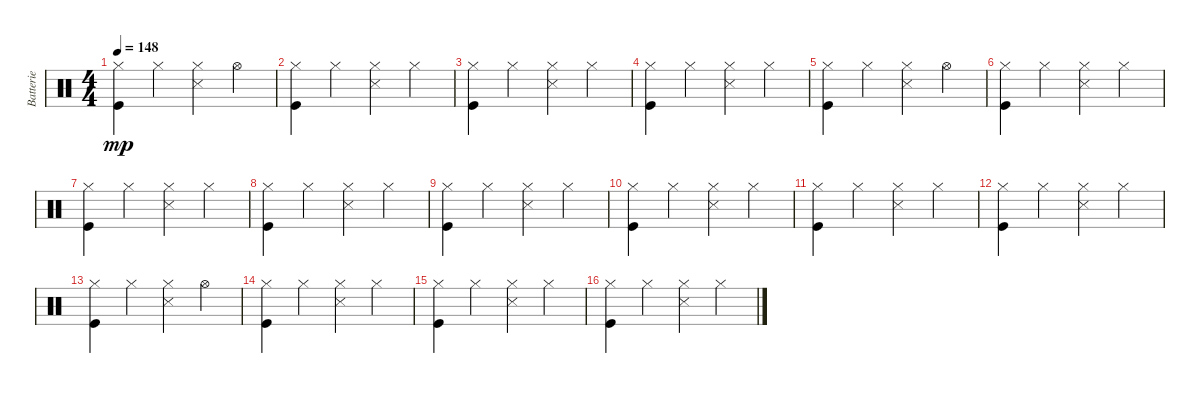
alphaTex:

\track ("Batterie" "Batterie") {instrument percussion}
\staff {score}
\articulation defaults
\ts (4 4)
\tempo 148
\clef neutral
\ks c
("Hi-Hat (closed)" "Kick (hit)").4{dy mp} "Hi-Hat (closed)".4 ("Hi-Hat (closed)" "Metronome (hit)").4 "Hi-Hat (open)".4 |
("Hi-Hat (closed)" "Kick (hit)").4 "Hi-Hat (closed)".4 ("Hi-Hat (closed)" "Metronome (hit)").4 "Hi-Hat (closed)".4 |
("Hi-Hat (closed)" "Kick (hit)").4 "Hi-Hat (closed)".4 ("Hi-Hat (closed)" "Metronome (hit)").4 "Hi-Hat (closed)".4 |
("Hi-Hat (closed)" "Kick (hit)").4 "Hi-Hat (closed)".4 ("Hi-Hat (closed)" "Metronome (hit)").4 "Hi-Hat (closed)".4 |
("Hi-Hat (closed)" "Kick (hit)").4 "Hi-Hat (closed)".4 ("Hi-Hat (closed)" "Metronome (hit)").4 "Hi-Hat (open)".4 |
("Hi-Hat (closed)" "Kick (hit)").4 "Hi-Hat (closed)".4 ("Hi-Hat (closed)" "Metronome (hit)").4 "Hi-Hat (closed)".4 |
("Hi-Hat (closed)" "Kick (hit)").4 "Hi-Hat (closed)".4 ("Hi-Hat (closed)" "Metronome (hit)").4 "Hi-Hat (closed)".4 |
("Hi-Hat (closed)" "Kick (hit)").4 "Hi-Hat (closed)".4 ("Hi-Hat (closed)" "Metronome (hit)").4 "Hi-Hat (closed)".4 |
("Hi-Hat (closed)" "Kick (hit)").4 "Hi-Hat (closed)".4 ("Hi-Hat (closed)" "Metronome (hit)").4 "Hi-Hat (closed)".4 |
("Hi-Hat (closed)" "Kick (hit)").4 "Hi-Hat (closed)".4 ("Hi-Hat (closed)" "Metronome (hit)").4 "Hi-Hat (closed)".4 |
("Hi-Hat (closed)" "Kick (hit)").4 "Hi-Hat (closed)".4 ("Hi-Hat (closed)" "Metronome (hit)").4 "Hi-Hat (closed)".4 |
("Hi-Hat (closed)" "Kick (hit)").4 "Hi-Hat (closed)".4 ("Hi-Hat (closed)" "Metronome (hit)").4 "Hi-Hat (closed)".4 |
("Hi-Hat (closed)" "Kick (hit)").4 "Hi-Hat (closed)".4 ("Hi-Hat (closed)" "Metronome (hit)").4 "Hi-Hat (open)".4 |
("Hi-Hat (closed)" "Kick (hit)").4 "Hi-Hat (closed)".4 ("Hi-Hat (closed)" "Metronome (hit)").4 "Hi-Hat (closed)".4 |
("Hi-Hat (closed)" "Kick (hit)").4 "Hi-Hat (closed)".4 ("Hi-Hat (closed)" "Metronome (hit)").4 "Hi-Hat (closed)".4 |
("Hi-Hat (closed)" "Kick (hit)").4 "Hi-Hat (closed)".4 ("Hi-Hat (closed)" "Metronome (hit)").4 "Hi-Hat (closed)".4
